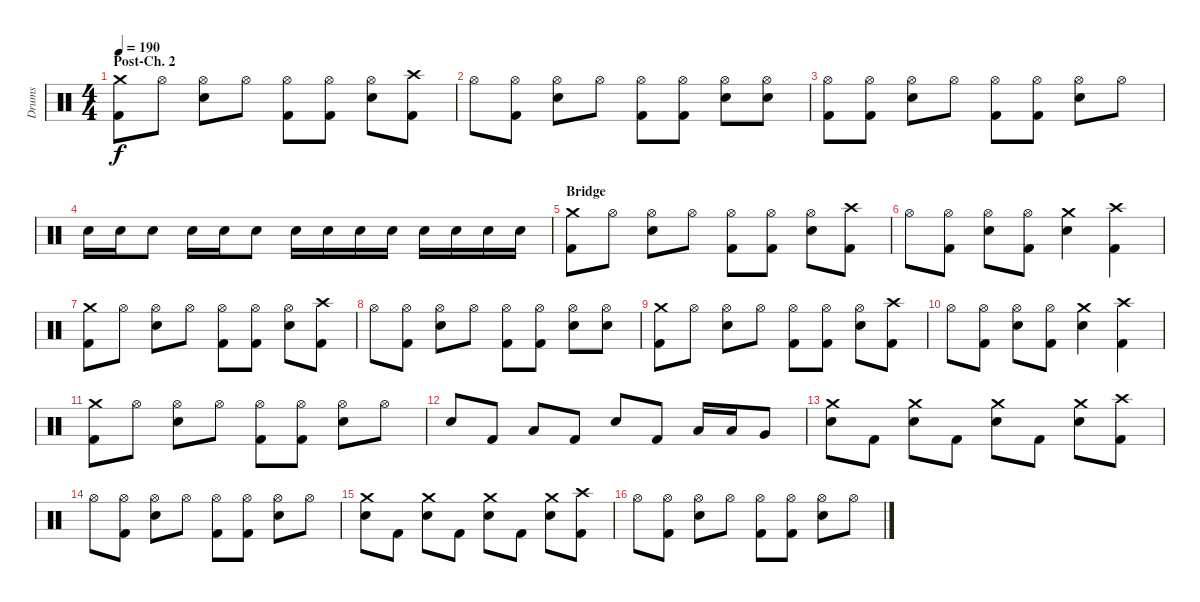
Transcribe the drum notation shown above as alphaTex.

\track ("Drums" "Drums") {instrument percussion}
\staff {score}
\articulation defaults
\ts (4 4)
\section ("" "Post-Ch. 2")
\tempo 190
\clef neutral
\ks c
("Crash medium (hit)" "Kick (hit) 2").8{dy f} "Hi-Hat (open)".8 ("Hi-Hat (open)" "Electric Snare (hit)").8 "Hi-Hat (open)".8 ("Hi-Hat (open)" "Kick (hit) 2").8 ("Hi-Hat (open)" "Kick (hit) 2").8 ("Hi-Hat (open)" "Electric Snare (hit)").8 ("Crash high (hit)" "Kick (hit) 2").8 |
"Hi-Hat (open)".8 ("Hi-Hat (open)" "Kick (hit) 2").8 ("Hi-Hat (open)" "Electric Snare (hit)").8 "Hi-Hat (open)".8 ("Hi-Hat (open)" "Kick (hit) 2").8 ("Hi-Hat (open)" "Kick (hit) 2").8 ("Hi-Hat (open)" "Electric Snare (hit)").8 ("Hi-Hat (open)" "Electric Snare (hit)").8 |
("Hi-Hat (open)" "Kick (hit) 2").8 ("Hi-Hat (open)" "Kick (hit) 2").8 ("Hi-Hat (open)" "Electric Snare (hit)").8 "Hi-Hat (open)".8 ("Hi-Hat (open)" "Kick (hit) 2").8 ("Hi-Hat (open)" "Kick (hit) 2").8 ("Hi-Hat (open)" "Electric Snare (hit)").8 "Hi-Hat (open)".8 |
"Electric Snare (hit)".16 "Electric Snare (hit)".16 "Electric Snare (hit)".8 "Electric Snare (hit)".16 "Electric Snare (hit)".16 "Electric Snare (hit)".8 "Electric Snare (hit)".16 "Electric Snare (hit)".16 "Electric Snare (hit)".16 "Electric Snare (hit)".16 "Electric Snare (hit)".16 "Electric Snare (hit)".16 "Electric Snare (hit)".16 "Electric Snare (hit)".16 |
\section ("" "Bridge")
("Crash medium (hit)" "Kick (hit) 2").8 "Hi-Hat (open)".8 ("Hi-Hat (open)" "Electric Snare (hit)").8 "Hi-Hat (open)".8 ("Hi-Hat (open)" "Kick (hit) 2").8 ("Hi-Hat (open)" "Kick (hit) 2").8 ("Hi-Hat (open)" "Electric Snare (hit)").8 ("Crash high (hit)" "Kick (hit) 2").8 |
"Hi-Hat (open)".8 ("Hi-Hat (open)" "Kick (hit) 2").8 ("Hi-Hat (open)" "Electric Snare (hit)").8 ("Hi-Hat (open)" "Kick (hit) 2").8 ("Crash medium (hit)" "Electric Snare (hit)").4 ("Crash high (hit)" "Kick (hit) 2").4 |
("Crash medium (hit)" "Kick (hit) 2").8 "Hi-Hat (open)".8 ("Hi-Hat (open)" "Electric Snare (hit)").8 "Hi-Hat (open)".8 ("Hi-Hat (open)" "Kick (hit) 2").8 ("Hi-Hat (open)" "Kick (hit) 2").8 ("Hi-Hat (open)" "Electric Snare (hit)").8 ("Crash high (hit)" "Kick (hit) 2").8 |
"Hi-Hat (open)".8 ("Hi-Hat (open)" "Kick (hit) 2").8 ("Hi-Hat (open)" "Electric Snare (hit)").8 "Hi-Hat (open)".8 ("Hi-Hat (open)" "Kick (hit) 2").8 ("Hi-Hat (open)" "Kick (hit) 2").8 ("Hi-Hat (open)" "Electric Snare (hit)").8 ("Hi-Hat (open)" "Electric Snare (hit)").8 |
("Crash medium (hit)" "Kick (hit) 2").8 "Hi-Hat (open)".8 ("Hi-Hat (open)" "Electric Snare (hit)").8 "Hi-Hat (open)".8 ("Hi-Hat (open)" "Kick (hit) 2").8 ("Hi-Hat (open)" "Kick (hit) 2").8 ("Hi-Hat (open)" "Electric Snare (hit)").8 ("Crash high (hit)" "Kick (hit) 2").8 |
"Hi-Hat (open)".8 ("Hi-Hat (open)" "Kick (hit) 2").8 ("Hi-Hat (open)" "Electric Snare (hit)").8 ("Hi-Hat (open)" "Kick (hit) 2").8 ("Crash medium (hit)" "Electric Snare (hit)").4 ("Crash high (hit)" "Kick (hit) 2").4 |
("Crash medium (hit)" "Kick (hit) 2").8 "Hi-Hat (open)".8 ("Hi-Hat (open)" "Electric Snare (hit)").8 "Hi-Hat (open)".8 ("Hi-Hat (open)" "Kick (hit) 2").8 ("Hi-Hat (open)" "Kick (hit) 2").8 ("Hi-Hat (open)" "Electric Snare (hit)").8 "Hi-Hat (open)".8 |
"Electric Snare (hit)".8 "Kick (hit) 2".8 "Low Tom (hit)".8 "Kick (hit) 2".8 "Electric Snare (hit)".8 "Kick (hit) 2".8 "Low Tom (hit)".16 "Low Tom (hit)".16 "Very Low Tom (hit)".8 |
("Crash medium (hit)" "Electric Snare (hit)").8 "Kick (hit) 2".8 ("Crash medium (hit)" "Electric Snare (hit)").8 "Kick (hit) 2".8 ("Crash medium (hit)" "Electric Snare (hit)").8 "Kick (hit) 2".8 ("Crash medium (hit)" "Electric Snare (hit)").8 ("Crash high (hit)" "Kick (hit) 2").8 |
"Hi-Hat (open)".8 ("Hi-Hat (open)" "Kick (hit) 2").8 ("Hi-Hat (open)" "Electric Snare (hit)").8 "Hi-Hat (open)".8 ("Hi-Hat (open)" "Kick (hit) 2").8 ("Hi-Hat (open)" "Kick (hit) 2").8 ("Hi-Hat (open)" "Electric Snare (hit)").8 "Hi-Hat (open)".8 |
("Crash medium (hit)" "Electric Snare (hit)").8 "Kick (hit) 2".8 ("Crash medium (hit)" "Electric Snare (hit)").8 "Kick (hit) 2".8 ("Crash medium (hit)" "Electric Snare (hit)").8 "Kick (hit) 2".8 ("Crash medium (hit)" "Electric Snare (hit)").8 ("Crash high (hit)" "Kick (hit) 2").8 |
"Hi-Hat (open)".8 ("Hi-Hat (open)" "Kick (hit) 2").8 ("Hi-Hat (open)" "Electric Snare (hit)").8 "Hi-Hat (open)".8 ("Hi-Hat (open)" "Kick (hit) 2").8 ("Hi-Hat (open)" "Kick (hit) 2").8 ("Hi-Hat (open)" "Electric Snare (hit)").8 "Hi-Hat (open)".8
